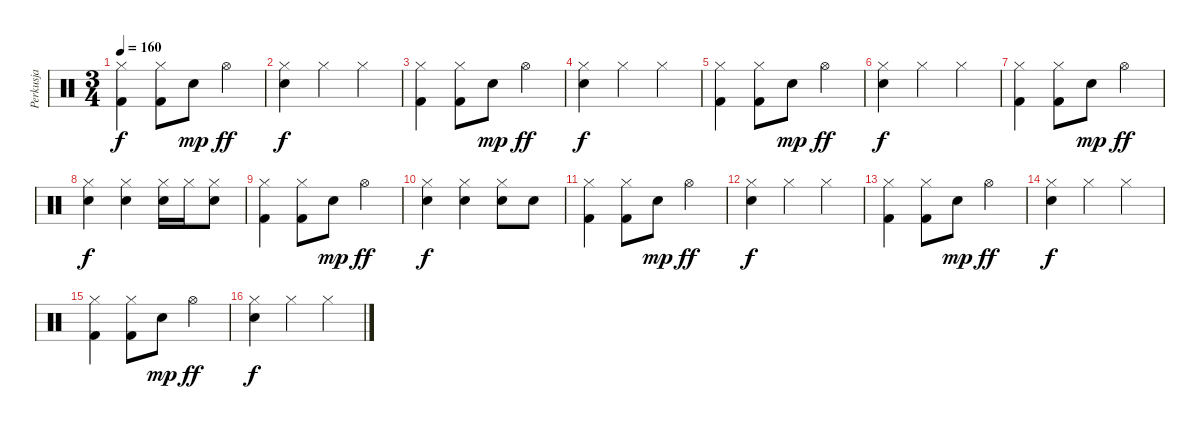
\track ("Perkusja" "Perkusja") {instrument percussion}
\staff {score}
\articulation defaults
\ts (3 4)
\tempo 160
\clef neutral
\ks c
("Hi-Hat (closed)" "Kick (hit) 2").4{dy f} ("Hi-Hat (closed)" "Kick (hit) 2").8 "Snare (hit) 2".8{dy mp} "Hi-Hat (open)".4{dy ff} |
("Hi-Hat (closed)" "Snare (hit) 2").4{dy f} "Hi-Hat (closed)".4 "Hi-Hat (closed)".4 |
("Hi-Hat (closed)" "Kick (hit) 2").4 ("Hi-Hat (closed)" "Kick (hit) 2").8 "Snare (hit) 2".8{dy mp} "Hi-Hat (open)".4{dy ff} |
("Hi-Hat (closed)" "Snare (hit) 2").4{dy f} "Hi-Hat (closed)".4 "Hi-Hat (closed)".4 |
("Hi-Hat (closed)" "Kick (hit) 2").4 ("Hi-Hat (closed)" "Kick (hit) 2").8 "Snare (hit) 2".8{dy mp} "Hi-Hat (open)".4{dy ff} |
("Hi-Hat (closed)" "Snare (hit) 2").4{dy f} "Hi-Hat (closed)".4 "Hi-Hat (closed)".4 |
("Hi-Hat (closed)" "Kick (hit) 2").4 ("Hi-Hat (closed)" "Kick (hit) 2").8 "Snare (hit) 2".8{dy mp} "Hi-Hat (open)".4{dy ff} |
("Hi-Hat (closed)" "Snare (hit) 2").4{dy f} ("Hi-Hat (closed)" "Snare (hit) 2").4 ("Hi-Hat (closed)" "Snare (hit) 2").16 "Hi-Hat (closed)".16 ("Hi-Hat (closed)" "Snare (hit) 2").8 |
("Hi-Hat (closed)" "Kick (hit) 2").4 ("Hi-Hat (closed)" "Kick (hit) 2").8 "Snare (hit) 2".8{dy mp} "Hi-Hat (open)".4{dy ff} |
("Hi-Hat (closed)" "Snare (hit) 2").4{dy f} ("Hi-Hat (closed)" "Snare (hit) 2").4 ("Hi-Hat (closed)" "Snare (hit) 2").8 "Snare (hit) 2".8 |
("Hi-Hat (closed)" "Kick (hit) 2").4 ("Hi-Hat (closed)" "Kick (hit) 2").8 "Snare (hit) 2".8{dy mp} "Hi-Hat (open)".4{dy ff} |
("Hi-Hat (closed)" "Snare (hit) 2").4{dy f} "Hi-Hat (closed)".4 "Hi-Hat (closed)".4 |
("Hi-Hat (closed)" "Kick (hit) 2").4 ("Hi-Hat (closed)" "Kick (hit) 2").8 "Snare (hit) 2".8{dy mp} "Hi-Hat (open)".4{dy ff} |
("Hi-Hat (closed)" "Snare (hit) 2").4{dy f} "Hi-Hat (closed)".4 "Hi-Hat (closed)".4 |
("Hi-Hat (closed)" "Kick (hit) 2").4 ("Hi-Hat (closed)" "Kick (hit) 2").8 "Snare (hit) 2".8{dy mp} "Hi-Hat (open)".4{dy ff} |
("Hi-Hat (closed)" "Snare (hit) 2").4{dy f} "Hi-Hat (closed)".4 "Hi-Hat (closed)".4
